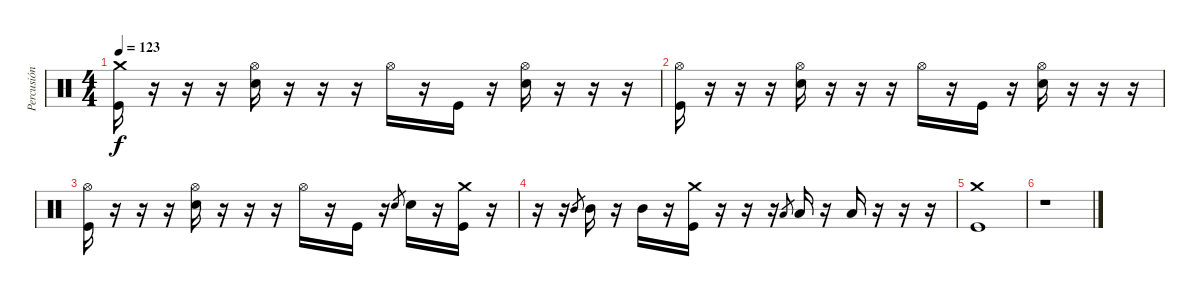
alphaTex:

\track ("Percusión" "Percusión") {instrument percussion}
\staff {score}
\articulation defaults
\ts (4 4)
\tempo 123
\clef neutral
\ks c
("Crash medium (hit)" "Kick (hit)").16{dy f} r.16 r.16 r.16 ("Hi-Hat (open)" "Snare (hit) 2").16 r.16 r.16 r.16 "Hi-Hat (open)".16 r.16 "Kick (hit)".16 r.16 ("Hi-Hat (open)" "Snare (hit) 2").16 r.16 r.16 r.16 |
("Hi-Hat (open)" "Kick (hit)").16 r.16 r.16 r.16 ("Hi-Hat (open)" "Snare (hit) 2").16 r.16 r.16 r.16 "Hi-Hat (open)".16 r.16 "Kick (hit)".16 r.16 ("Hi-Hat (open)" "Snare (hit) 2").16 r.16 r.16 r.16 |
("Hi-Hat (open)" "Kick (hit)").16 r.16 r.16 r.16 ("Hi-Hat (open)" "Snare (hit) 2").16 r.16 r.16 r.16 "Hi-Hat (open)".16 r.16 "Kick (hit)".16 r.16 "Snare (hit) 2".8{gr} "Snare (hit) 2".16 r.16 ("Crash medium (hit)" "Kick (hit)").16 r.16 |
r.16 r.16 "Mid Tom (hit)".8{gr} "Mid Tom (hit)".16 r.16 "Mid Tom (hit)".16 r.16 ("Crash medium (hit)" "Kick (hit)").16 r.16 r.16 r.16 "Low Tom (hit)".8{gr} "Low Tom (hit)".16 r.16 "Low Tom (hit)".16 r.16 r.16 r.16 |
("Crash medium (hit)" "Kick (hit)").1 |
r.1
